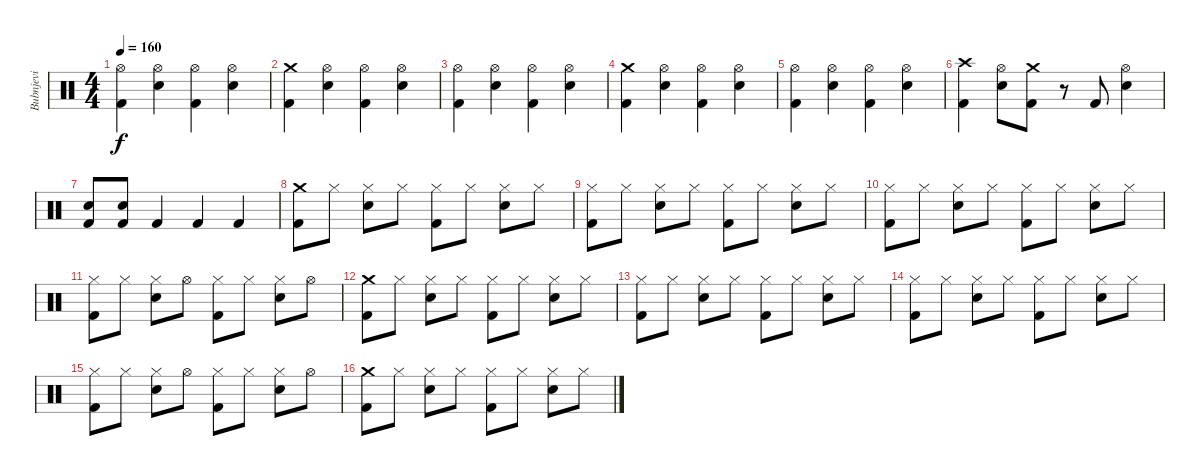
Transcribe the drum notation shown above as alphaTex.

\track ("Bubnjevi" "Bubnjevi") {instrument percussion}
\staff {score}
\articulation defaults
\ts (4 4)
\tempo 160
\clef neutral
\ks c
("Hi-Hat (open)" "Kick (hit) 2").4{dy f} ("Hi-Hat (open)" "Snare (hit) 2").4 ("Hi-Hat (open)" "Kick (hit) 2").4 ("Hi-Hat (open)" "Snare (hit) 2").4 |
("Crash medium (hit)" "Kick (hit) 2").4 ("Hi-Hat (open)" "Snare (hit) 2").4 ("Hi-Hat (open)" "Kick (hit) 2").4 ("Hi-Hat (open)" "Snare (hit) 2").4 |
("Hi-Hat (open)" "Kick (hit) 2").4 ("Hi-Hat (open)" "Snare (hit) 2").4 ("Hi-Hat (open)" "Kick (hit) 2").4 ("Hi-Hat (open)" "Snare (hit) 2").4 |
("Crash medium (hit)" "Kick (hit) 2").4 ("Hi-Hat (open)" "Snare (hit) 2").4 ("Hi-Hat (open)" "Kick (hit) 2").4 ("Hi-Hat (open)" "Snare (hit) 2").4 |
("Hi-Hat (open)" "Kick (hit) 2").4 ("Hi-Hat (open)" "Snare (hit) 2").4 ("Hi-Hat (open)" "Kick (hit) 2").4 ("Hi-Hat (open)" "Snare (hit) 2").4 |
("Crash high (hit)" "Kick (hit) 2").4 ("Hi-Hat (open)" "Snare (hit) 2").8 ("Crash medium (hit)" "Kick (hit) 2").8 r.8 "Kick (hit) 2".8 ("Hi-Hat (open)" "Snare (hit) 2").4 |
("Snare (hit) 2" "Kick (hit) 2").8 ("Snare (hit) 2" "Kick (hit) 2").8 "Kick (hit) 2".4 "Kick (hit) 2".4 "Kick (hit) 2".4 |
("Crash medium (hit)" "Kick (hit) 2").8 "Hi-Hat (closed)".8 ("Hi-Hat (closed)" "Snare (hit) 2").8 "Hi-Hat (closed)".8 ("Hi-Hat (closed)" "Kick (hit) 2").8 "Hi-Hat (closed)".8 ("Hi-Hat (closed)" "Snare (hit) 2").8 "Hi-Hat (closed)".8 |
("Hi-Hat (closed)" "Kick (hit) 2").8 "Hi-Hat (closed)".8 ("Hi-Hat (closed)" "Snare (hit) 2").8 "Hi-Hat (closed)".8 ("Hi-Hat (closed)" "Kick (hit) 2").8 "Hi-Hat (closed)".8 ("Hi-Hat (closed)" "Snare (hit) 2").8 "Hi-Hat (closed)".8 |
("Hi-Hat (closed)" "Kick (hit) 2").8 "Hi-Hat (closed)".8 ("Hi-Hat (closed)" "Snare (hit) 2").8 "Hi-Hat (closed)".8 ("Hi-Hat (closed)" "Kick (hit) 2").8 "Hi-Hat (closed)".8 ("Hi-Hat (closed)" "Snare (hit) 2").8 "Hi-Hat (closed)".8 |
("Hi-Hat (closed)" "Kick (hit) 2").8 "Hi-Hat (closed)".8 ("Hi-Hat (closed)" "Snare (hit) 2").8 "Hi-Hat (open)".8 ("Hi-Hat (closed)" "Kick (hit) 2").8 "Hi-Hat (closed)".8 ("Hi-Hat (closed)" "Snare (hit) 2").8 "Hi-Hat (open)".8 |
("Crash medium (hit)" "Kick (hit) 2").8 "Hi-Hat (closed)".8 ("Hi-Hat (closed)" "Snare (hit) 2").8 "Hi-Hat (closed)".8 ("Hi-Hat (closed)" "Kick (hit) 2").8 "Hi-Hat (closed)".8 ("Hi-Hat (closed)" "Snare (hit) 2").8 "Hi-Hat (closed)".8 |
("Hi-Hat (closed)" "Kick (hit) 2").8 "Hi-Hat (closed)".8 ("Hi-Hat (closed)" "Snare (hit) 2").8 "Hi-Hat (closed)".8 ("Hi-Hat (closed)" "Kick (hit) 2").8 "Hi-Hat (closed)".8 ("Hi-Hat (closed)" "Snare (hit) 2").8 "Hi-Hat (closed)".8 |
("Hi-Hat (closed)" "Kick (hit) 2").8 "Hi-Hat (closed)".8 ("Hi-Hat (closed)" "Snare (hit) 2").8 "Hi-Hat (closed)".8 ("Hi-Hat (closed)" "Kick (hit) 2").8 "Hi-Hat (closed)".8 ("Hi-Hat (closed)" "Snare (hit) 2").8 "Hi-Hat (closed)".8 |
("Hi-Hat (closed)" "Kick (hit) 2").8 "Hi-Hat (closed)".8 ("Hi-Hat (closed)" "Snare (hit) 2").8 "Hi-Hat (open)".8 ("Hi-Hat (closed)" "Kick (hit) 2").8 "Hi-Hat (closed)".8 ("Hi-Hat (closed)" "Snare (hit) 2").8 "Hi-Hat (open)".8 |
("Crash medium (hit)" "Kick (hit) 2").8 "Hi-Hat (closed)".8 ("Hi-Hat (closed)" "Snare (hit) 2").8 "Hi-Hat (closed)".8 ("Hi-Hat (closed)" "Kick (hit) 2").8 "Hi-Hat (closed)".8 ("Hi-Hat (closed)" "Snare (hit) 2").8 "Hi-Hat (closed)".8
